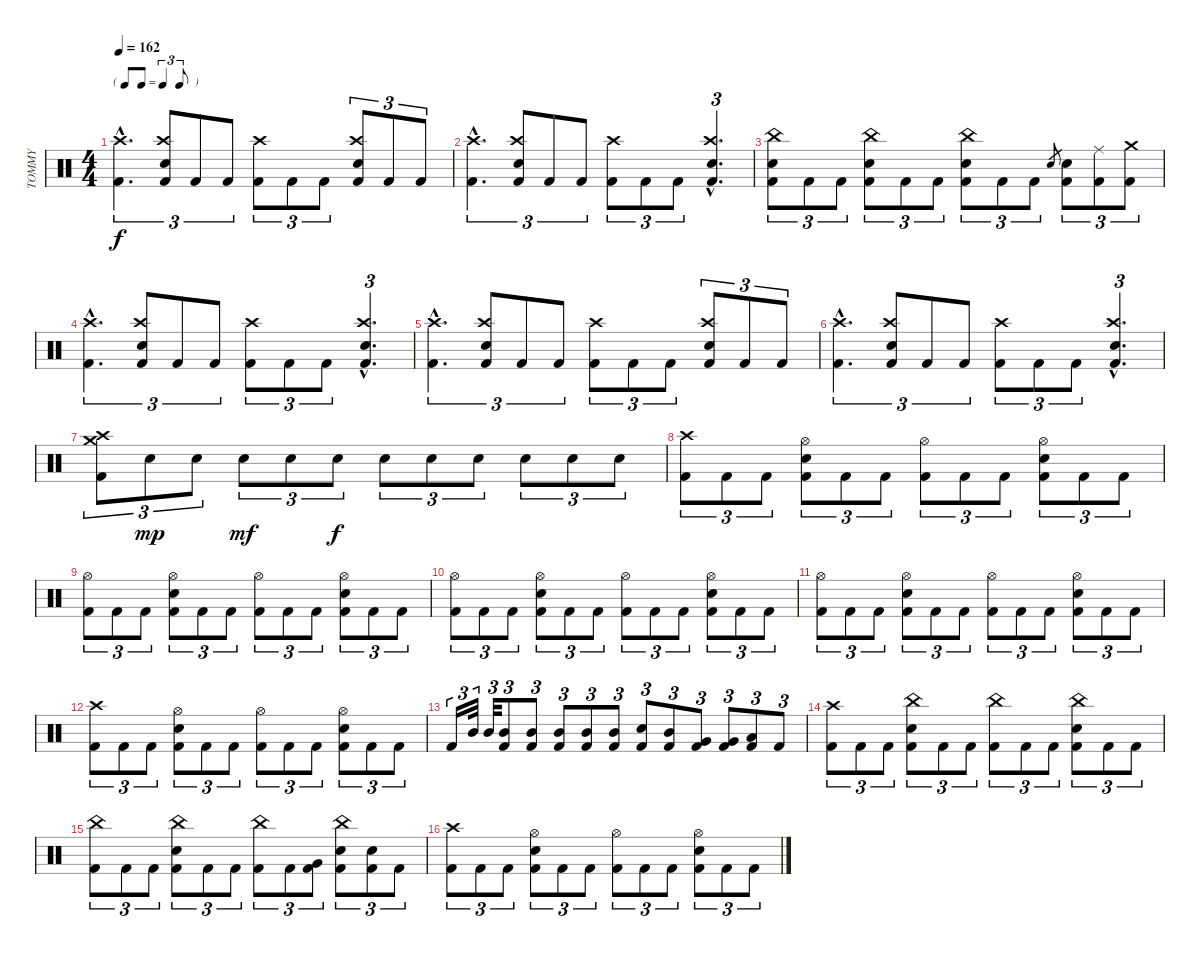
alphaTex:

\track ("TOMMY" "TOMMY") {instrument percussion}
\staff {score}
\articulation defaults
\ts (4 4)
\tf triplet8th
\tempo 162
\clef neutral
\ks c
("Kick (hit) 2"{hac} "Crash high (hit)"{hac}).4{d tu (3 2) dy f} ("Snare (hit) 2" "Kick (hit) 2" "Crash high (hit)").8{tu (3 2)} "Kick (hit) 2".8{tu (3 2)} "Kick (hit) 2".8{tu (3 2)} ("Kick (hit) 2" "Crash high (hit)").8{tu (3 2)} "Kick (hit) 2".8{tu (3 2)} "Kick (hit) 2".8{tu (3 2)} ("Snare (hit) 2" "Kick (hit) 2" "Crash high (hit)").8{tu (3 2)} "Kick (hit) 2".8{tu (3 2)} "Kick (hit) 2".8{tu (3 2)} |
("Kick (hit) 2"{hac} "Crash high (hit)"{hac}).4{d tu (3 2)} ("Snare (hit) 2" "Kick (hit) 2" "Crash high (hit)").8{tu (3 2)} "Kick (hit) 2".8{tu (3 2)} "Kick (hit) 2".8{tu (3 2)} ("Kick (hit) 2" "Crash high (hit)").8{tu (3 2)} "Kick (hit) 2".8{tu (3 2)} "Kick (hit) 2".8{tu (3 2)} ("Snare (hit) 2"{hac} "Kick (hit) 2"{hac} "Crash high (hit)"{hac}).4{d tu (3 2)} |
("Snare (hit) 2" "Kick (hit) 2" "China (hit)").8{tu (3 2)} "Kick (hit) 2".8{tu (3 2)} "Kick (hit) 2".8{tu (3 2)} ("Snare (hit) 2" "Kick (hit) 2" "China (hit)").8{tu (3 2)} "Kick (hit) 2".8{tu (3 2)} "Kick (hit) 2".8{tu (3 2)} ("Snare (hit) 2" "Kick (hit) 2" "China (hit)").8{tu (3 2)} "Kick (hit) 2".8{tu (3 2)} "Kick (hit) 2".8{tu (3 2)} "Snare (hit) 2".8{gr} ("Snare (hit) 2" "Kick (hit) 2").8{tu (3 2)} ("Kick (hit) 2" "Ride (middle)").8{tu (3 2)} ("Kick (hit) 2" "Crash medium (hit)").8{tu (3 2)} |
("Kick (hit) 2"{hac} "Crash high (hit)"{hac}).4{d tu (3 2)} ("Snare (hit) 2" "Kick (hit) 2" "Crash high (hit)").8{tu (3 2)} "Kick (hit) 2".8{tu (3 2)} "Kick (hit) 2".8{tu (3 2)} ("Kick (hit) 2" "Crash high (hit)").8{tu (3 2)} "Kick (hit) 2".8{tu (3 2)} "Kick (hit) 2".8{tu (3 2)} ("Snare (hit) 2"{hac} "Kick (hit) 2"{hac} "Crash high (hit)"{hac}).4{d tu (3 2)} |
("Kick (hit) 2"{hac} "Crash high (hit)"{hac}).4{d tu (3 2)} ("Snare (hit) 2" "Kick (hit) 2" "Crash high (hit)").8{tu (3 2)} "Kick (hit) 2".8{tu (3 2)} "Kick (hit) 2".8{tu (3 2)} ("Kick (hit) 2" "Crash high (hit)").8{tu (3 2)} "Kick (hit) 2".8{tu (3 2)} "Kick (hit) 2".8{tu (3 2)} ("Snare (hit) 2" "Kick (hit) 2" "Crash high (hit)").8{tu (3 2)} "Kick (hit) 2".8{tu (3 2)} "Kick (hit) 2".8{tu (3 2)} |
("Kick (hit) 2"{hac} "Crash high (hit)"{hac}).4{d tu (3 2)} ("Snare (hit) 2" "Kick (hit) 2" "Crash high (hit)").8{tu (3 2)} "Kick (hit) 2".8{tu (3 2)} "Kick (hit) 2".8{tu (3 2)} ("Kick (hit) 2" "Crash high (hit)").8{tu (3 2)} "Kick (hit) 2".8{tu (3 2)} "Kick (hit) 2".8{tu (3 2)} ("Snare (hit) 2"{hac} "Kick (hit) 2"{hac} "Crash high (hit)"{hac}).4{d tu (3 2)} |
("Kick (hit) 2" "Crash high (hit)" "Crash medium (hit)").8{tu (3 2)} "Snare (hit) 2".8{tu (3 2) dy mp} "Snare (hit) 2".8{tu (3 2)} "Snare (hit) 2".8{tu (3 2) dy mf} "Snare (hit) 2".8{tu (3 2)} "Snare (hit) 2".8{tu (3 2) dy f} "Snare (hit) 2".8{tu (3 2)} "Snare (hit) 2".8{tu (3 2)} "Snare (hit) 2".8{tu (3 2)} "Snare (hit) 2".8{tu (3 2)} "Snare (hit) 2".8{tu (3 2)} "Snare (hit) 2".8{tu (3 2)} |
("Kick (hit) 2" "Crash high (hit)").8{tu (3 2)} "Kick (hit) 2".8{tu (3 2)} "Kick (hit) 2".8{tu (3 2)} ("Snare (hit) 2" "Kick (hit) 2" "Hi-Hat (open)").8{tu (3 2)} "Kick (hit) 2".8{tu (3 2)} "Kick (hit) 2".8{tu (3 2)} ("Kick (hit) 2" "Hi-Hat (open)").8{tu (3 2)} "Kick (hit) 2".8{tu (3 2)} "Kick (hit) 2".8{tu (3 2)} ("Snare (hit) 2" "Kick (hit) 2" "Hi-Hat (open)").8{tu (3 2)} "Kick (hit) 2".8{tu (3 2)} "Kick (hit) 2".8{tu (3 2)} |
("Kick (hit) 2" "Hi-Hat (open)").8{tu (3 2)} "Kick (hit) 2".8{tu (3 2)} "Kick (hit) 2".8{tu (3 2)} ("Snare (hit) 2" "Kick (hit) 2" "Hi-Hat (open)").8{tu (3 2)} "Kick (hit) 2".8{tu (3 2)} "Kick (hit) 2".8{tu (3 2)} ("Kick (hit) 2" "Hi-Hat (open)").8{tu (3 2)} "Kick (hit) 2".8{tu (3 2)} "Kick (hit) 2".8{tu (3 2)} ("Snare (hit) 2" "Kick (hit) 2" "Hi-Hat (open)").8{tu (3 2)} "Kick (hit) 2".8{tu (3 2)} "Kick (hit) 2".8{tu (3 2)} |
("Kick (hit) 2" "Hi-Hat (open)").8{tu (3 2)} "Kick (hit) 2".8{tu (3 2)} "Kick (hit) 2".8{tu (3 2)} ("Snare (hit) 2" "Kick (hit) 2" "Hi-Hat (open)").8{tu (3 2)} "Kick (hit) 2".8{tu (3 2)} "Kick (hit) 2".8{tu (3 2)} ("Kick (hit) 2" "Hi-Hat (open)").8{tu (3 2)} "Kick (hit) 2".8{tu (3 2)} "Kick (hit) 2".8{tu (3 2)} ("Snare (hit) 2" "Kick (hit) 2" "Hi-Hat (open)").8{tu (3 2)} "Kick (hit) 2".8{tu (3 2)} "Kick (hit) 2".8{tu (3 2)} |
("Kick (hit) 2" "Hi-Hat (open)").8{tu (3 2)} "Kick (hit) 2".8{tu (3 2)} "Kick (hit) 2".8{tu (3 2)} ("Snare (hit) 2" "Kick (hit) 2" "Hi-Hat (open)").8{tu (3 2)} "Kick (hit) 2".8{tu (3 2)} "Kick (hit) 2".8{tu (3 2)} ("Kick (hit) 2" "Hi-Hat (open)").8{tu (3 2)} "Kick (hit) 2".8{tu (3 2)} "Kick (hit) 2".8{tu (3 2)} ("Snare (hit) 2" "Kick (hit) 2" "Hi-Hat (open)").8{tu (3 2)} "Kick (hit) 2".8{tu (3 2)} "Kick (hit) 2".8{tu (3 2)} |
("Kick (hit) 2" "Crash high (hit)").8{tu (3 2)} "Kick (hit) 2".8{tu (3 2)} "Kick (hit) 2".8{tu (3 2)} ("Snare (hit) 2" "Kick (hit) 2" "Hi-Hat (open)").8{tu (3 2)} "Kick (hit) 2".8{tu (3 2)} "Kick (hit) 2".8{tu (3 2)} ("Kick (hit) 2" "Hi-Hat (open)").8{tu (3 2)} "Kick (hit) 2".8{tu (3 2)} "Kick (hit) 2".8{tu (3 2)} ("Snare (hit) 2" "Kick (hit) 2" "Hi-Hat (open)").8{tu (3 2)} "Kick (hit) 2".8{tu (3 2)} "Kick (hit) 2".8{tu (3 2)} |
"Kick (hit) 2".16{tu (3 2)} "Mid Tom (hit)".32{tu (3 2)} "Mid Tom (hit)".32{tu (3 2)} ("Kick (hit) 2" "Mid Tom (hit)").8{tu (3 2)} ("Kick (hit) 2" "Mid Tom (hit)").8{tu (3 2)} ("Kick (hit) 2" "Mid Tom (hit)").8{tu (3 2)} ("Kick (hit) 2" "Mid Tom (hit)").8{tu (3 2)} ("Kick (hit) 2" "Mid Tom (hit)").8{tu (3 2)} ("Snare (hit) 2" "Kick (hit) 2").8{tu (3 2)} ("Kick (hit) 2" "Mid Tom (hit)").8{tu (3 2)} ("Kick (hit) 2" "Very Low Tom (hit)").8{tu (3 2)} ("Kick (hit) 2" "Very Low Tom (hit)").8{tu (3 2)} ("Kick (hit) 2" "Low Floor Tom (hit)").8{tu (3 2)} "Kick (hit) 2".8{tu (3 2)} |
("Kick (hit) 2" "Crash high (hit)").8{tu (3 2)} "Kick (hit) 2".8{tu (3 2)} "Kick (hit) 2".8{tu (3 2)} ("Snare (hit) 2" "Kick (hit) 2" "China (hit)").8{tu (3 2)} "Kick (hit) 2".8{tu (3 2)} "Kick (hit) 2".8{tu (3 2)} ("Kick (hit) 2" "China (hit)").8{tu (3 2)} "Kick (hit) 2".8{tu (3 2)} "Kick (hit) 2".8{tu (3 2)} ("Snare (hit) 2" "Kick (hit) 2" "China (hit)").8{tu (3 2)} "Kick (hit) 2".8{tu (3 2)} "Kick (hit) 2".8{tu (3 2)} |
("Kick (hit) 2" "China (hit)").8{tu (3 2)} "Kick (hit) 2".8{tu (3 2)} "Kick (hit) 2".8{tu (3 2)} ("Snare (hit) 2" "Kick (hit) 2" "China (hit)").8{tu (3 2)} "Kick (hit) 2".8{tu (3 2)} "Kick (hit) 2".8{tu (3 2)} ("Kick (hit) 2" "China (hit)").8{tu (3 2)} "Kick (hit) 2".8{tu (3 2)} ("Kick (hit) 2" "Very Low Tom (hit)").8{tu (3 2)} ("Snare (hit) 2" "Kick (hit) 2" "China (hit)").8{tu (3 2)} ("Snare (hit) 2" "Kick (hit) 2").8{tu (3 2)} "Kick (hit) 2".8{tu (3 2)} |
("Kick (hit) 2" "Crash high (hit)").8{tu (3 2)} "Kick (hit) 2".8{tu (3 2)} "Kick (hit) 2".8{tu (3 2)} ("Snare (hit) 2" "Kick (hit) 2" "Hi-Hat (open)").8{tu (3 2)} "Kick (hit) 2".8{tu (3 2)} "Kick (hit) 2".8{tu (3 2)} ("Kick (hit) 2" "Hi-Hat (open)").8{tu (3 2)} "Kick (hit) 2".8{tu (3 2)} "Kick (hit) 2".8{tu (3 2)} ("Snare (hit) 2" "Kick (hit) 2" "Hi-Hat (open)").8{tu (3 2)} "Kick (hit) 2".8{tu (3 2)} "Kick (hit) 2".8{tu (3 2)}
